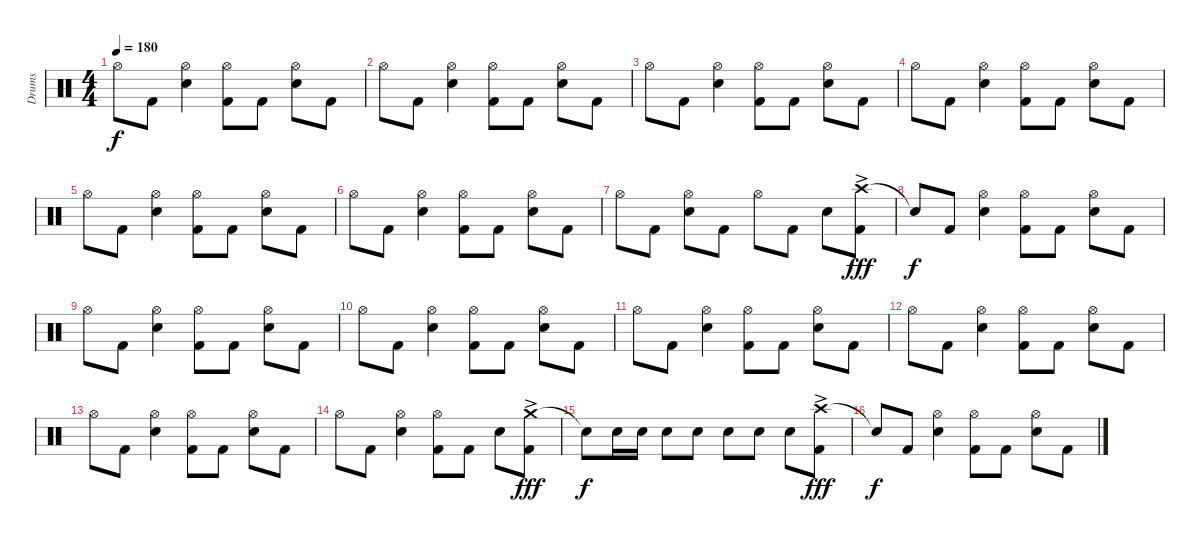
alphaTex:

\track ("Drums" "Drums") {instrument percussion}
\staff {score}
\articulation defaults
\ts (4 4)
\tempo 180
\clef neutral
\ks c "Hi-Hat (open)".8{dy f} "Kick (hit) 2".8
("Hi-Hat (open)" "Snare (hit) 2").4 ("Hi-Hat (open)" "Kick (hit) 2").8 "Kick (hit) 2".8 ("Hi-Hat (open)" "Snare (hit) 2").8 "Kick (hit) 2".8 |
"Hi-Hat (open)".8 "Kick (hit) 2".8 ("Hi-Hat (open)" "Snare (hit) 2").4 ("Hi-Hat (open)" "Kick (hit) 2").8 "Kick (hit) 2".8 ("Hi-Hat (open)" "Snare (hit) 2").8 "Kick (hit) 2".8 |
"Hi-Hat (open)".8 "Kick (hit) 2".8 ("Hi-Hat (open)" "Snare (hit) 2").4 ("Hi-Hat (open)" "Kick (hit) 2").8 "Kick (hit) 2".8 ("Hi-Hat (open)" "Snare (hit) 2").8 "Kick (hit) 2".8 |
"Hi-Hat (open)".8 "Kick (hit) 2".8 ("Hi-Hat (open)" "Snare (hit) 2").4 ("Hi-Hat (open)" "Kick (hit) 2").8 "Kick (hit) 2".8 ("Hi-Hat (open)" "Snare (hit) 2").8 "Kick (hit) 2".8 |
"Hi-Hat (open)".8 "Kick (hit) 2".8 ("Hi-Hat (open)" "Snare (hit) 2").4 ("Hi-Hat (open)" "Kick (hit) 2").8 "Kick (hit) 2".8 ("Hi-Hat (open)" "Snare (hit) 2").8 "Kick (hit) 2".8 |
"Hi-Hat (open)".8 "Kick (hit) 2".8 ("Hi-Hat (open)" "Snare (hit) 2").4 ("Hi-Hat (open)" "Kick (hit) 2").8 "Kick (hit) 2".8 ("Hi-Hat (open)" "Snare (hit) 2").8 "Kick (hit) 2".8 |
"Hi-Hat (open)".8 "Kick (hit) 2".8 ("Hi-Hat (open)" "Snare (hit) 2").8 "Kick (hit) 2".8 "Hi-Hat (open)".8 "Kick (hit) 2".8 "Snare (hit) 2".8 ("Crash high (hit)"{ac} "Kick (hit) 2").8{dy fff} |
"Snare (hit)"{t}.8{dy f} "Kick (hit) 2".8 ("Hi-Hat (open)" "Snare (hit) 2").4 ("Hi-Hat (open)" "Kick (hit) 2").8 "Kick (hit) 2".8 ("Hi-Hat (open)" "Snare (hit) 2").8 "Kick (hit) 2".8 |
"Hi-Hat (open)".8 "Kick (hit) 2".8 ("Hi-Hat (open)" "Snare (hit) 2").4 ("Hi-Hat (open)" "Kick (hit) 2").8 "Kick (hit) 2".8 ("Hi-Hat (open)" "Snare (hit) 2").8 "Kick (hit) 2".8 |
"Hi-Hat (open)".8 "Kick (hit) 2".8 ("Hi-Hat (open)" "Snare (hit) 2").4 ("Hi-Hat (open)" "Kick (hit) 2").8 "Kick (hit) 2".8 ("Hi-Hat (open)" "Snare (hit) 2").8 "Kick (hit) 2".8 |
"Hi-Hat (open)".8 "Kick (hit) 2".8 ("Hi-Hat (open)" "Snare (hit) 2").4 ("Hi-Hat (open)" "Kick (hit) 2").8 "Kick (hit) 2".8 ("Hi-Hat (open)" "Snare (hit) 2").8 "Kick (hit) 2".8 |
"Hi-Hat (open)".8 "Kick (hit) 2".8 ("Hi-Hat (open)" "Snare (hit) 2").4 ("Hi-Hat (open)" "Kick (hit) 2").8 "Kick (hit) 2".8 ("Hi-Hat (open)" "Snare (hit) 2").8 "Kick (hit) 2".8 |
"Hi-Hat (open)".8 "Kick (hit) 2".8 ("Hi-Hat (open)" "Snare (hit) 2").4 ("Hi-Hat (open)" "Kick (hit) 2").8 "Kick (hit) 2".8 ("Hi-Hat (open)" "Snare (hit) 2").8 "Kick (hit) 2".8 |
"Hi-Hat (open)".8 "Kick (hit) 2".8 ("Hi-Hat (open)" "Snare (hit) 2").4 ("Hi-Hat (open)" "Kick (hit) 2").8 "Kick (hit) 2".8 "Snare (hit) 2".8 ("Crash medium (hit)"{ac} "Kick (hit) 2").8{dy fff} |
"Snare (hit)"{t}.8{dy f} "Snare (hit) 2".16 "Snare (hit) 2".16 "Snare (hit) 2".8 "Snare (hit) 2".8 "Snare (hit) 2".8 "Snare (hit) 2".8 "Snare (hit) 2".8 ("Crash high (hit)"{ac} "Kick (hit) 2").8{dy fff} |
"Snare (hit)"{t}.8{dy f} "Kick (hit) 2".8 ("Hi-Hat (open)" "Snare (hit) 2").4 ("Hi-Hat (open)" "Kick (hit) 2").8 "Kick (hit) 2".8 ("Hi-Hat (open)" "Snare (hit) 2").8 "Kick (hit) 2".8
